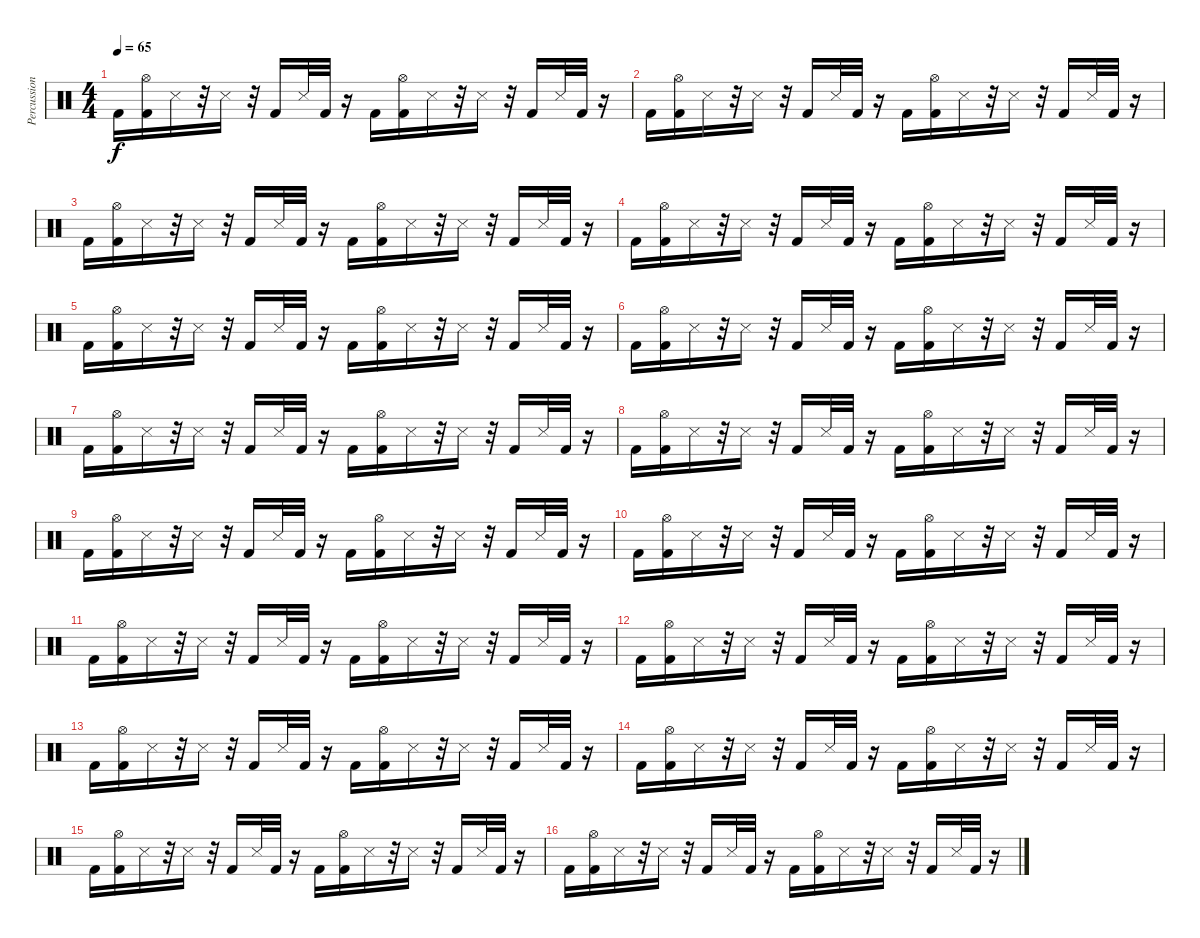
\track ("Percussion 1" "Percussion") {instrument percussion}
\staff {score}
\articulation defaults
\ts (4 4)
\tempo 65
\clef neutral
\ks c "Kick (hit) 2".16{dy f}
("Hi-Hat (open)" "Kick (hit) 2").16 "Snare (side stick) 3".16 r.32 "Snare (side stick) 3".16 r.32 "Kick (hit) 2".16 "Snare (side stick) 3".32 "Kick (hit) 2".32 r.16 "Kick (hit) 2".16 ("Hi-Hat (open)" "Kick (hit) 2").16 "Snare (side stick) 3".16 r.32 "Snare (side stick) 3".16 r.32 "Kick (hit) 2".16 "Snare (side stick) 3".32 "Kick (hit) 2".32 r.16 |
"Kick (hit) 2".16 ("Hi-Hat (open)" "Kick (hit) 2").16 "Snare (side stick) 3".16 r.32 "Snare (side stick) 3".16 r.32 "Kick (hit) 2".16 "Snare (side stick) 3".32 "Kick (hit) 2".32 r.16 "Kick (hit) 2".16 ("Hi-Hat (open)" "Kick (hit) 2").16 "Snare (side stick) 3".16 r.32 "Snare (side stick) 3".16 r.32 "Kick (hit) 2".16 "Snare (side stick) 3".32 "Kick (hit) 2".32 r.16 |
"Kick (hit) 2".16 ("Hi-Hat (open)" "Kick (hit) 2").16 "Snare (side stick) 3".16 r.32 "Snare (side stick) 3".16 r.32 "Kick (hit) 2".16 "Snare (side stick) 3".32 "Kick (hit) 2".32 r.16 "Kick (hit) 2".16 ("Hi-Hat (open)" "Kick (hit) 2").16 "Snare (side stick) 3".16 r.32 "Snare (side stick) 3".16 r.32 "Kick (hit) 2".16 "Snare (side stick) 3".32 "Kick (hit) 2".32 r.16 |
"Kick (hit) 2".16 ("Hi-Hat (open)" "Kick (hit) 2").16 "Snare (side stick) 3".16 r.32 "Snare (side stick) 3".16 r.32 "Kick (hit) 2".16 "Snare (side stick) 3".32 "Kick (hit) 2".32 r.16 "Kick (hit) 2".16 ("Hi-Hat (open)" "Kick (hit) 2").16 "Snare (side stick) 3".16 r.32 "Snare (side stick) 3".16 r.32 "Kick (hit) 2".16 "Snare (side stick) 3".32 "Kick (hit) 2".32 r.16 |
"Kick (hit) 2".16 ("Hi-Hat (open)" "Kick (hit) 2").16 "Snare (side stick) 3".16 r.32 "Snare (side stick) 3".16 r.32 "Kick (hit) 2".16 "Snare (side stick) 3".32 "Kick (hit) 2".32 r.16 "Kick (hit) 2".16 ("Hi-Hat (open)" "Kick (hit) 2").16 "Snare (side stick) 3".16 r.32 "Snare (side stick) 3".16 r.32 "Kick (hit) 2".16 "Snare (side stick) 3".32 "Kick (hit) 2".32 r.16 |
"Kick (hit) 2".16 ("Hi-Hat (open)" "Kick (hit) 2").16 "Snare (side stick) 3".16 r.32 "Snare (side stick) 3".16 r.32 "Kick (hit) 2".16 "Snare (side stick) 3".32 "Kick (hit) 2".32 r.16 "Kick (hit) 2".16 ("Hi-Hat (open)" "Kick (hit) 2").16 "Snare (side stick) 3".16 r.32 "Snare (side stick) 3".16 r.32 "Kick (hit) 2".16 "Snare (side stick) 3".32 "Kick (hit) 2".32 r.16 |
"Kick (hit) 2".16 ("Hi-Hat (open)" "Kick (hit) 2").16 "Snare (side stick) 3".16 r.32 "Snare (side stick) 3".16 r.32 "Kick (hit) 2".16 "Snare (side stick) 3".32 "Kick (hit) 2".32 r.16 "Kick (hit) 2".16 ("Hi-Hat (open)" "Kick (hit) 2").16 "Snare (side stick) 3".16 r.32 "Snare (side stick) 3".16 r.32 "Kick (hit) 2".16 "Snare (side stick) 3".32 "Kick (hit) 2".32 r.16 |
"Kick (hit) 2".16 ("Hi-Hat (open)" "Kick (hit) 2").16 "Snare (side stick) 3".16 r.32 "Snare (side stick) 3".16 r.32 "Kick (hit) 2".16 "Snare (side stick) 3".32 "Kick (hit) 2".32 r.16 "Kick (hit) 2".16 ("Hi-Hat (open)" "Kick (hit) 2").16 "Snare (side stick) 3".16 r.32 "Snare (side stick) 3".16 r.32 "Kick (hit) 2".16 "Snare (side stick) 3".32 "Kick (hit) 2".32 r.16 |
"Kick (hit) 2".16 ("Hi-Hat (open)" "Kick (hit) 2").16 "Snare (side stick) 3".16 r.32 "Snare (side stick) 3".16 r.32 "Kick (hit) 2".16 "Snare (side stick) 3".32 "Kick (hit) 2".32 r.16 "Kick (hit) 2".16 ("Hi-Hat (open)" "Kick (hit) 2").16 "Snare (side stick) 3".16 r.32 "Snare (side stick) 3".16 r.32 "Kick (hit) 2".16 "Snare (side stick) 3".32 "Kick (hit) 2".32 r.16 |
"Kick (hit) 2".16 ("Hi-Hat (open)" "Kick (hit) 2").16 "Snare (side stick) 3".16 r.32 "Snare (side stick) 3".16 r.32 "Kick (hit) 2".16 "Snare (side stick) 3".32 "Kick (hit) 2".32 r.16 "Kick (hit) 2".16 ("Hi-Hat (open)" "Kick (hit) 2").16 "Snare (side stick) 3".16 r.32 "Snare (side stick) 3".16 r.32 "Kick (hit) 2".16 "Snare (side stick) 3".32 "Kick (hit) 2".32 r.16 |
\section ("" "")
"Kick (hit) 2".16 ("Hi-Hat (open)" "Kick (hit) 2").16 "Snare (side stick) 3".16 r.32 "Snare (side stick) 3".16 r.32 "Kick (hit) 2".16 "Snare (side stick) 3".32 "Kick (hit) 2".32 r.16 "Kick (hit) 2".16 ("Hi-Hat (open)" "Kick (hit) 2").16 "Snare (side stick) 3".16 r.32 "Snare (side stick) 3".16 r.32 "Kick (hit) 2".16 "Snare (side stick) 3".32 "Kick (hit) 2".32 r.16 |
"Kick (hit) 2".16 ("Hi-Hat (open)" "Kick (hit) 2").16 "Snare (side stick) 3".16 r.32 "Snare (side stick) 3".16 r.32 "Kick (hit) 2".16 "Snare (side stick) 3".32 "Kick (hit) 2".32 r.16 "Kick (hit) 2".16 ("Hi-Hat (open)" "Kick (hit) 2").16 "Snare (side stick) 3".16 r.32 "Snare (side stick) 3".16 r.32 "Kick (hit) 2".16 "Snare (side stick) 3".32 "Kick (hit) 2".32 r.16 |
\section ("" "")
"Kick (hit) 2".16 ("Hi-Hat (open)" "Kick (hit) 2").16 "Snare (side stick) 3".16 r.32 "Snare (side stick) 3".16 r.32 "Kick (hit) 2".16 "Snare (side stick) 3".32 "Kick (hit) 2".32 r.16 "Kick (hit) 2".16 ("Hi-Hat (open)" "Kick (hit) 2").16 "Snare (side stick) 3".16 r.32 "Snare (side stick) 3".16 r.32 "Kick (hit) 2".16 "Snare (side stick) 3".32 "Kick (hit) 2".32 r.16 |
"Kick (hit) 2".16 ("Hi-Hat (open)" "Kick (hit) 2").16 "Snare (side stick) 3".16 r.32 "Snare (side stick) 3".16 r.32 "Kick (hit) 2".16 "Snare (side stick) 3".32 "Kick (hit) 2".32 r.16 "Kick (hit) 2".16 ("Hi-Hat (open)" "Kick (hit) 2").16 "Snare (side stick) 3".16 r.32 "Snare (side stick) 3".16 r.32 "Kick (hit) 2".16 "Snare (side stick) 3".32 "Kick (hit) 2".32 r.16 |
"Kick (hit) 2".16 ("Hi-Hat (open)" "Kick (hit) 2").16 "Snare (side stick) 3".16 r.32 "Snare (side stick) 3".16 r.32 "Kick (hit) 2".16 "Snare (side stick) 3".32 "Kick (hit) 2".32 r.16 "Kick (hit) 2".16 ("Hi-Hat (open)" "Kick (hit) 2").16 "Snare (side stick) 3".16 r.32 "Snare (side stick) 3".16 r.32 "Kick (hit) 2".16 "Snare (side stick) 3".32 "Kick (hit) 2".32 r.16 |
"Kick (hit) 2".16 ("Hi-Hat (open)" "Kick (hit) 2").16 "Snare (side stick) 3".16 r.32 "Snare (side stick) 3".16 r.32 "Kick (hit) 2".16 "Snare (side stick) 3".32 "Kick (hit) 2".32 r.16 "Kick (hit) 2".16 ("Hi-Hat (open)" "Kick (hit) 2").16 "Snare (side stick) 3".16 r.32 "Snare (side stick) 3".16 r.32 "Kick (hit) 2".16 "Snare (side stick) 3".32 "Kick (hit) 2".32 r.16
